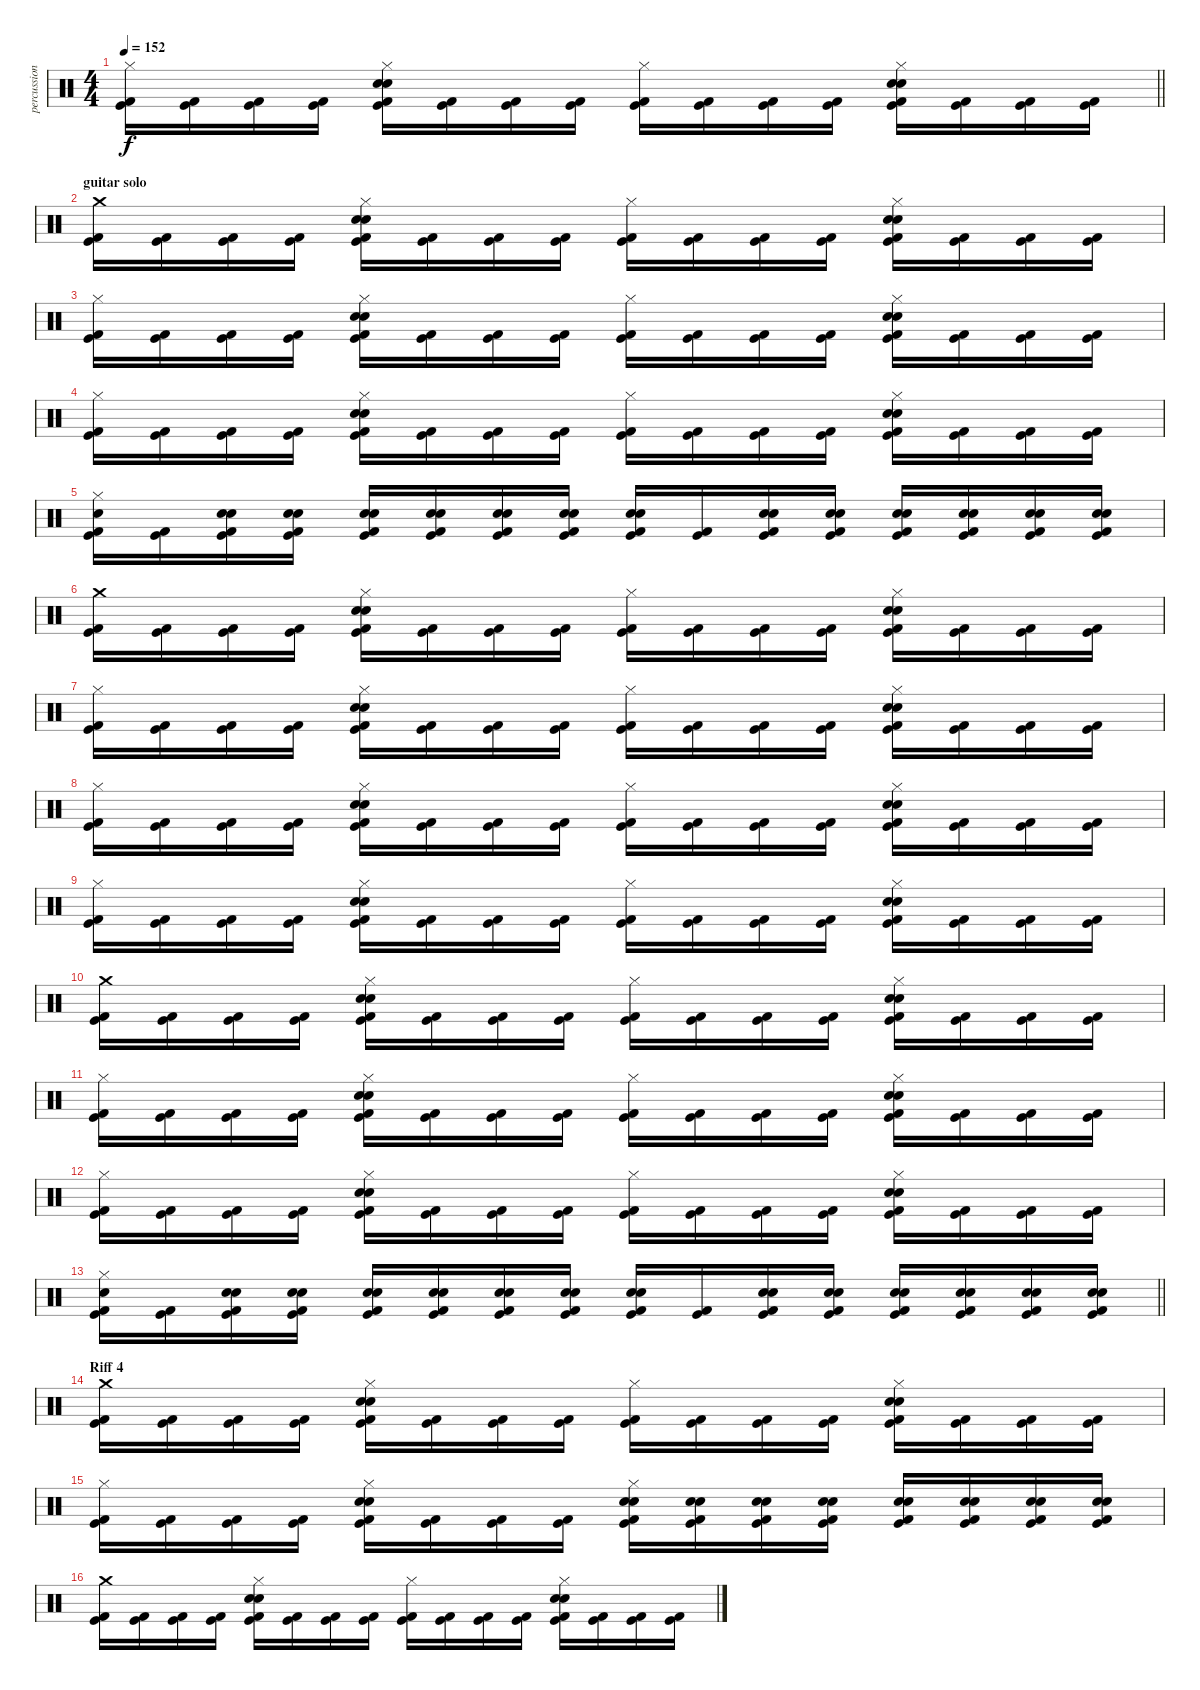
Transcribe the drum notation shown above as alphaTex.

\track ("percussion" "percussion") {instrument percussion}
\staff {score}
\articulation defaults
\ts (4 4)
\tempo 152
\clef neutral
\barLineRight lightlight
\ks c
("Hi-Hat (closed)" "Kick (hit) 2" "Kick (hit)").16{dy f} ("Kick (hit) 2" "Kick (hit)").16 ("Kick (hit) 2" "Kick (hit)").16 ("Kick (hit) 2" "Kick (hit)").16 ("Hi-Hat (closed)" "Electric Snare (hit)" "Snare (hit) 2" "Kick (hit) 2" "Kick (hit)").16 ("Kick (hit) 2" "Kick (hit)").16 ("Kick (hit) 2" "Kick (hit)").16 ("Kick (hit) 2" "Kick (hit)").16 ("Hi-Hat (closed)" "Kick (hit) 2" "Kick (hit)").16 ("Kick (hit) 2" "Kick (hit)").16 ("Kick (hit) 2" "Kick (hit)").16 ("Kick (hit) 2" "Kick (hit)").16 ("Hi-Hat (closed)" "Electric Snare (hit)" "Snare (hit) 2" "Kick (hit) 2" "Kick (hit)").16 ("Kick (hit) 2" "Kick (hit)").16 ("Kick (hit) 2" "Kick (hit)").16 ("Kick (hit) 2" "Kick (hit)").16 |
\section ("" "guitar solo")
("Crash medium (hit)" "Kick (hit) 2" "Kick (hit)").16 ("Kick (hit) 2" "Kick (hit)").16 ("Kick (hit) 2" "Kick (hit)").16 ("Kick (hit) 2" "Kick (hit)").16 ("Hi-Hat (closed)" "Electric Snare (hit)" "Snare (hit) 2" "Kick (hit) 2" "Kick (hit)").16 ("Kick (hit) 2" "Kick (hit)").16 ("Kick (hit) 2" "Kick (hit)").16 ("Kick (hit) 2" "Kick (hit)").16 ("Hi-Hat (closed)" "Kick (hit) 2" "Kick (hit)").16 ("Kick (hit) 2" "Kick (hit)").16 ("Kick (hit) 2" "Kick (hit)").16 ("Kick (hit) 2" "Kick (hit)").16 ("Hi-Hat (closed)" "Electric Snare (hit)" "Snare (hit) 2" "Kick (hit) 2" "Kick (hit)").16 ("Kick (hit) 2" "Kick (hit)").16 ("Kick (hit) 2" "Kick (hit)").16 ("Kick (hit) 2" "Kick (hit)").16 |
("Hi-Hat (closed)" "Kick (hit) 2" "Kick (hit)").16 ("Kick (hit) 2" "Kick (hit)").16 ("Kick (hit) 2" "Kick (hit)").16 ("Kick (hit) 2" "Kick (hit)").16 ("Hi-Hat (closed)" "Electric Snare (hit)" "Snare (hit) 2" "Kick (hit) 2" "Kick (hit)").16 ("Kick (hit) 2" "Kick (hit)").16 ("Kick (hit) 2" "Kick (hit)").16 ("Kick (hit) 2" "Kick (hit)").16 ("Hi-Hat (closed)" "Kick (hit) 2" "Kick (hit)").16 ("Kick (hit) 2" "Kick (hit)").16 ("Kick (hit) 2" "Kick (hit)").16 ("Kick (hit) 2" "Kick (hit)").16 ("Hi-Hat (closed)" "Electric Snare (hit)" "Snare (hit) 2" "Kick (hit) 2" "Kick (hit)").16 ("Kick (hit) 2" "Kick (hit)").16 ("Kick (hit) 2" "Kick (hit)").16 ("Kick (hit) 2" "Kick (hit)").16 |
("Hi-Hat (closed)" "Kick (hit) 2" "Kick (hit)").16 ("Kick (hit) 2" "Kick (hit)").16 ("Kick (hit) 2" "Kick (hit)").16 ("Kick (hit) 2" "Kick (hit)").16 ("Hi-Hat (closed)" "Electric Snare (hit)" "Snare (hit) 2" "Kick (hit) 2" "Kick (hit)").16 ("Kick (hit) 2" "Kick (hit)").16 ("Kick (hit) 2" "Kick (hit)").16 ("Kick (hit) 2" "Kick (hit)").16 ("Hi-Hat (closed)" "Kick (hit) 2" "Kick (hit)").16 ("Kick (hit) 2" "Kick (hit)").16 ("Kick (hit) 2" "Kick (hit)").16 ("Kick (hit) 2" "Kick (hit)").16 ("Hi-Hat (closed)" "Electric Snare (hit)" "Snare (hit) 2" "Kick (hit) 2" "Kick (hit)").16 ("Kick (hit) 2" "Kick (hit)").16 ("Kick (hit) 2" "Kick (hit)").16 ("Kick (hit) 2" "Kick (hit)").16 |
("Hi-Hat (closed)" "Electric Snare (hit)" "Kick (hit) 2" "Kick (hit)").16 ("Kick (hit) 2" "Kick (hit)").16 ("Electric Snare (hit)" "Snare (hit) 2" "Kick (hit) 2" "Kick (hit)").16 ("Electric Snare (hit)" "Snare (hit) 2" "Kick (hit) 2" "Kick (hit)").16 ("Electric Snare (hit)" "Snare (hit) 2" "Kick (hit) 2" "Kick (hit)").16 ("Electric Snare (hit)" "Snare (hit) 2" "Kick (hit) 2" "Kick (hit)").16 ("Electric Snare (hit)" "Snare (hit) 2" "Kick (hit) 2" "Kick (hit)").16 ("Electric Snare (hit)" "Snare (hit) 2" "Kick (hit) 2" "Kick (hit)").16 ("Electric Snare (hit)" "Snare (hit) 2" "Kick (hit) 2" "Kick (hit)").16 ("Kick (hit) 2" "Kick (hit)").16 ("Electric Snare (hit)" "Snare (hit) 2" "Kick (hit) 2" "Kick (hit)").16 ("Electric Snare (hit)" "Snare (hit) 2" "Kick (hit) 2" "Kick (hit)").16 ("Electric Snare (hit)" "Snare (hit) 2" "Kick (hit) 2" "Kick (hit)").16 ("Electric Snare (hit)" "Snare (hit) 2" "Kick (hit) 2" "Kick (hit)").16 ("Electric Snare (hit)" "Snare (hit) 2" "Kick (hit) 2" "Kick (hit)").16 ("Electric Snare (hit)" "Snare (hit) 2" "Kick (hit) 2" "Kick (hit)").16 |
("Crash medium (hit)" "Kick (hit) 2" "Kick (hit)").16 ("Kick (hit) 2" "Kick (hit)").16 ("Kick (hit) 2" "Kick (hit)").16 ("Kick (hit) 2" "Kick (hit)").16 ("Hi-Hat (closed)" "Electric Snare (hit)" "Snare (hit) 2" "Kick (hit) 2" "Kick (hit)").16 ("Kick (hit) 2" "Kick (hit)").16 ("Kick (hit) 2" "Kick (hit)").16 ("Kick (hit) 2" "Kick (hit)").16 ("Hi-Hat (closed)" "Kick (hit) 2" "Kick (hit)").16 ("Kick (hit) 2" "Kick (hit)").16 ("Kick (hit) 2" "Kick (hit)").16 ("Kick (hit) 2" "Kick (hit)").16 ("Hi-Hat (closed)" "Electric Snare (hit)" "Snare (hit) 2" "Kick (hit) 2" "Kick (hit)").16 ("Kick (hit) 2" "Kick (hit)").16 ("Kick (hit) 2" "Kick (hit)").16 ("Kick (hit) 2" "Kick (hit)").16 |
("Hi-Hat (closed)" "Kick (hit) 2" "Kick (hit)").16 ("Kick (hit) 2" "Kick (hit)").16 ("Kick (hit) 2" "Kick (hit)").16 ("Kick (hit) 2" "Kick (hit)").16 ("Hi-Hat (closed)" "Electric Snare (hit)" "Snare (hit) 2" "Kick (hit) 2" "Kick (hit)").16 ("Kick (hit) 2" "Kick (hit)").16 ("Kick (hit) 2" "Kick (hit)").16 ("Kick (hit) 2" "Kick (hit)").16 ("Hi-Hat (closed)" "Kick (hit) 2" "Kick (hit)").16 ("Kick (hit) 2" "Kick (hit)").16 ("Kick (hit) 2" "Kick (hit)").16 ("Kick (hit) 2" "Kick (hit)").16 ("Hi-Hat (closed)" "Electric Snare (hit)" "Snare (hit) 2" "Kick (hit) 2" "Kick (hit)").16 ("Kick (hit) 2" "Kick (hit)").16 ("Kick (hit) 2" "Kick (hit)").16 ("Kick (hit) 2" "Kick (hit)").16 |
("Hi-Hat (closed)" "Kick (hit) 2" "Kick (hit)").16 ("Kick (hit) 2" "Kick (hit)").16 ("Kick (hit) 2" "Kick (hit)").16 ("Kick (hit) 2" "Kick (hit)").16 ("Hi-Hat (closed)" "Electric Snare (hit)" "Snare (hit) 2" "Kick (hit) 2" "Kick (hit)").16 ("Kick (hit) 2" "Kick (hit)").16 ("Kick (hit) 2" "Kick (hit)").16 ("Kick (hit) 2" "Kick (hit)").16 ("Hi-Hat (closed)" "Kick (hit) 2" "Kick (hit)").16 ("Kick (hit) 2" "Kick (hit)").16 ("Kick (hit) 2" "Kick (hit)").16 ("Kick (hit) 2" "Kick (hit)").16 ("Hi-Hat (closed)" "Electric Snare (hit)" "Snare (hit) 2" "Kick (hit) 2" "Kick (hit)").16 ("Kick (hit) 2" "Kick (hit)").16 ("Kick (hit) 2" "Kick (hit)").16 ("Kick (hit) 2" "Kick (hit)").16 |
("Hi-Hat (closed)" "Kick (hit) 2" "Kick (hit)").16 ("Kick (hit) 2" "Kick (hit)").16 ("Kick (hit) 2" "Kick (hit)").16 ("Kick (hit) 2" "Kick (hit)").16 ("Hi-Hat (closed)" "Electric Snare (hit)" "Snare (hit) 2" "Kick (hit) 2" "Kick (hit)").16 ("Kick (hit) 2" "Kick (hit)").16 ("Kick (hit) 2" "Kick (hit)").16 ("Kick (hit) 2" "Kick (hit)").16 ("Hi-Hat (closed)" "Kick (hit) 2" "Kick (hit)").16 ("Kick (hit) 2" "Kick (hit)").16 ("Kick (hit) 2" "Kick (hit)").16 ("Kick (hit) 2" "Kick (hit)").16 ("Hi-Hat (closed)" "Electric Snare (hit)" "Snare (hit) 2" "Kick (hit) 2" "Kick (hit)").16 ("Kick (hit) 2" "Kick (hit)").16 ("Kick (hit) 2" "Kick (hit)").16 ("Kick (hit) 2" "Kick (hit)").16 |
("Crash medium (hit)" "Kick (hit) 2" "Kick (hit)").16 ("Kick (hit) 2" "Kick (hit)").16 ("Kick (hit) 2" "Kick (hit)").16 ("Kick (hit) 2" "Kick (hit)").16 ("Hi-Hat (closed)" "Electric Snare (hit)" "Snare (hit) 2" "Kick (hit) 2" "Kick (hit)").16 ("Kick (hit) 2" "Kick (hit)").16 ("Kick (hit) 2" "Kick (hit)").16 ("Kick (hit) 2" "Kick (hit)").16 ("Hi-Hat (closed)" "Kick (hit) 2" "Kick (hit)").16 ("Kick (hit) 2" "Kick (hit)").16 ("Kick (hit) 2" "Kick (hit)").16 ("Kick (hit) 2" "Kick (hit)").16 ("Hi-Hat (closed)" "Electric Snare (hit)" "Snare (hit) 2" "Kick (hit) 2" "Kick (hit)").16 ("Kick (hit) 2" "Kick (hit)").16 ("Kick (hit) 2" "Kick (hit)").16 ("Kick (hit) 2" "Kick (hit)").16 |
("Hi-Hat (closed)" "Kick (hit) 2" "Kick (hit)").16 ("Kick (hit) 2" "Kick (hit)").16 ("Kick (hit) 2" "Kick (hit)").16 ("Kick (hit) 2" "Kick (hit)").16 ("Hi-Hat (closed)" "Electric Snare (hit)" "Snare (hit) 2" "Kick (hit) 2" "Kick (hit)").16 ("Kick (hit) 2" "Kick (hit)").16 ("Kick (hit) 2" "Kick (hit)").16 ("Kick (hit) 2" "Kick (hit)").16 ("Hi-Hat (closed)" "Kick (hit) 2" "Kick (hit)").16 ("Kick (hit) 2" "Kick (hit)").16 ("Kick (hit) 2" "Kick (hit)").16 ("Kick (hit) 2" "Kick (hit)").16 ("Hi-Hat (closed)" "Electric Snare (hit)" "Snare (hit) 2" "Kick (hit) 2" "Kick (hit)").16 ("Kick (hit) 2" "Kick (hit)").16 ("Kick (hit) 2" "Kick (hit)").16 ("Kick (hit) 2" "Kick (hit)").16 |
("Hi-Hat (closed)" "Kick (hit) 2" "Kick (hit)").16 ("Kick (hit) 2" "Kick (hit)").16 ("Kick (hit) 2" "Kick (hit)").16 ("Kick (hit) 2" "Kick (hit)").16 ("Hi-Hat (closed)" "Electric Snare (hit)" "Snare (hit) 2" "Kick (hit) 2" "Kick (hit)").16 ("Kick (hit) 2" "Kick (hit)").16 ("Kick (hit) 2" "Kick (hit)").16 ("Kick (hit) 2" "Kick (hit)").16 ("Hi-Hat (closed)" "Kick (hit) 2" "Kick (hit)").16 ("Kick (hit) 2" "Kick (hit)").16 ("Kick (hit) 2" "Kick (hit)").16 ("Kick (hit) 2" "Kick (hit)").16 ("Hi-Hat (closed)" "Electric Snare (hit)" "Snare (hit) 2" "Kick (hit) 2" "Kick (hit)").16 ("Kick (hit) 2" "Kick (hit)").16 ("Kick (hit) 2" "Kick (hit)").16 ("Kick (hit) 2" "Kick (hit)").16 |
\barLineRight lightlight
("Hi-Hat (closed)" "Electric Snare (hit)" "Kick (hit) 2" "Kick (hit)").16 ("Kick (hit) 2" "Kick (hit)").16 ("Electric Snare (hit)" "Snare (hit) 2" "Kick (hit) 2" "Kick (hit)").16 ("Electric Snare (hit)" "Snare (hit) 2" "Kick (hit) 2" "Kick (hit)").16 ("Electric Snare (hit)" "Snare (hit) 2" "Kick (hit) 2" "Kick (hit)").16 ("Electric Snare (hit)" "Snare (hit) 2" "Kick (hit) 2" "Kick (hit)").16 ("Electric Snare (hit)" "Snare (hit) 2" "Kick (hit) 2" "Kick (hit)").16 ("Electric Snare (hit)" "Snare (hit) 2" "Kick (hit) 2" "Kick (hit)").16 ("Electric Snare (hit)" "Snare (hit) 2" "Kick (hit) 2" "Kick (hit)").16 ("Kick (hit) 2" "Kick (hit)").16 ("Electric Snare (hit)" "Snare (hit) 2" "Kick (hit) 2" "Kick (hit)").16 ("Electric Snare (hit)" "Snare (hit) 2" "Kick (hit) 2" "Kick (hit)").16 ("Electric Snare (hit)" "Snare (hit) 2" "Kick (hit) 2" "Kick (hit)").16 ("Electric Snare (hit)" "Snare (hit) 2" "Kick (hit) 2" "Kick (hit)").16 ("Electric Snare (hit)" "Snare (hit) 2" "Kick (hit) 2" "Kick (hit)").16 ("Electric Snare (hit)" "Snare (hit) 2" "Kick (hit) 2" "Kick (hit)").16 |
\section ("" "Riff 4")
("Crash medium (hit)" "Kick (hit) 2" "Kick (hit)").16 ("Kick (hit) 2" "Kick (hit)").16 ("Kick (hit) 2" "Kick (hit)").16 ("Kick (hit) 2" "Kick (hit)").16 ("Hi-Hat (closed)" "Electric Snare (hit)" "Snare (hit) 2" "Kick (hit) 2" "Kick (hit)").16 ("Kick (hit) 2" "Kick (hit)").16 ("Kick (hit) 2" "Kick (hit)").16 ("Kick (hit) 2" "Kick (hit)").16 ("Hi-Hat (closed)" "Kick (hit) 2" "Kick (hit)").16 ("Kick (hit) 2" "Kick (hit)").16 ("Kick (hit) 2" "Kick (hit)").16 ("Kick (hit) 2" "Kick (hit)").16 ("Hi-Hat (closed)" "Electric Snare (hit)" "Snare (hit) 2" "Kick (hit) 2" "Kick (hit)").16 ("Kick (hit) 2" "Kick (hit)").16 ("Kick (hit) 2" "Kick (hit)").16 ("Kick (hit) 2" "Kick (hit)").16 |
("Hi-Hat (closed)" "Kick (hit) 2" "Kick (hit)").16 ("Kick (hit) 2" "Kick (hit)").16 ("Kick (hit) 2" "Kick (hit)").16 ("Kick (hit) 2" "Kick (hit)").16 ("Hi-Hat (closed)" "Electric Snare (hit)" "Snare (hit) 2" "Kick (hit) 2" "Kick (hit)").16 ("Kick (hit) 2" "Kick (hit)").16 ("Kick (hit) 2" "Kick (hit)").16 ("Kick (hit) 2" "Kick (hit)").16 ("Hi-Hat (closed)" "Electric Snare (hit)" "Snare (hit) 2" "Kick (hit) 2" "Kick (hit)").16 ("Electric Snare (hit)" "Snare (hit) 2" "Kick (hit) 2" "Kick (hit)").16 ("Electric Snare (hit)" "Snare (hit) 2" "Kick (hit) 2" "Kick (hit)").16 ("Electric Snare (hit)" "Snare (hit) 2" "Kick (hit) 2" "Kick (hit)").16 ("Electric Snare (hit)" "Snare (hit) 2" "Kick (hit) 2" "Kick (hit)").16 ("Electric Snare (hit)" "Snare (hit) 2" "Kick (hit) 2" "Kick (hit)").16 ("Electric Snare (hit)" "Snare (hit) 2" "Kick (hit) 2" "Kick (hit)").16 ("Electric Snare (hit)" "Snare (hit) 2" "Kick (hit) 2" "Kick (hit)").16 |
("Crash medium (hit)" "Kick (hit) 2" "Kick (hit)").16 ("Kick (hit) 2" "Kick (hit)").16 ("Kick (hit) 2" "Kick (hit)").16 ("Kick (hit) 2" "Kick (hit)").16 ("Hi-Hat (closed)" "Electric Snare (hit)" "Snare (hit) 2" "Kick (hit) 2" "Kick (hit)").16 ("Kick (hit) 2" "Kick (hit)").16 ("Kick (hit) 2" "Kick (hit)").16 ("Kick (hit) 2" "Kick (hit)").16 ("Hi-Hat (closed)" "Kick (hit) 2" "Kick (hit)").16 ("Kick (hit) 2" "Kick (hit)").16 ("Kick (hit) 2" "Kick (hit)").16 ("Kick (hit) 2" "Kick (hit)").16 ("Hi-Hat (closed)" "Electric Snare (hit)" "Snare (hit) 2" "Kick (hit) 2" "Kick (hit)").16 ("Kick (hit) 2" "Kick (hit)").16 ("Kick (hit) 2" "Kick (hit)").16 ("Kick (hit) 2" "Kick (hit)").16
